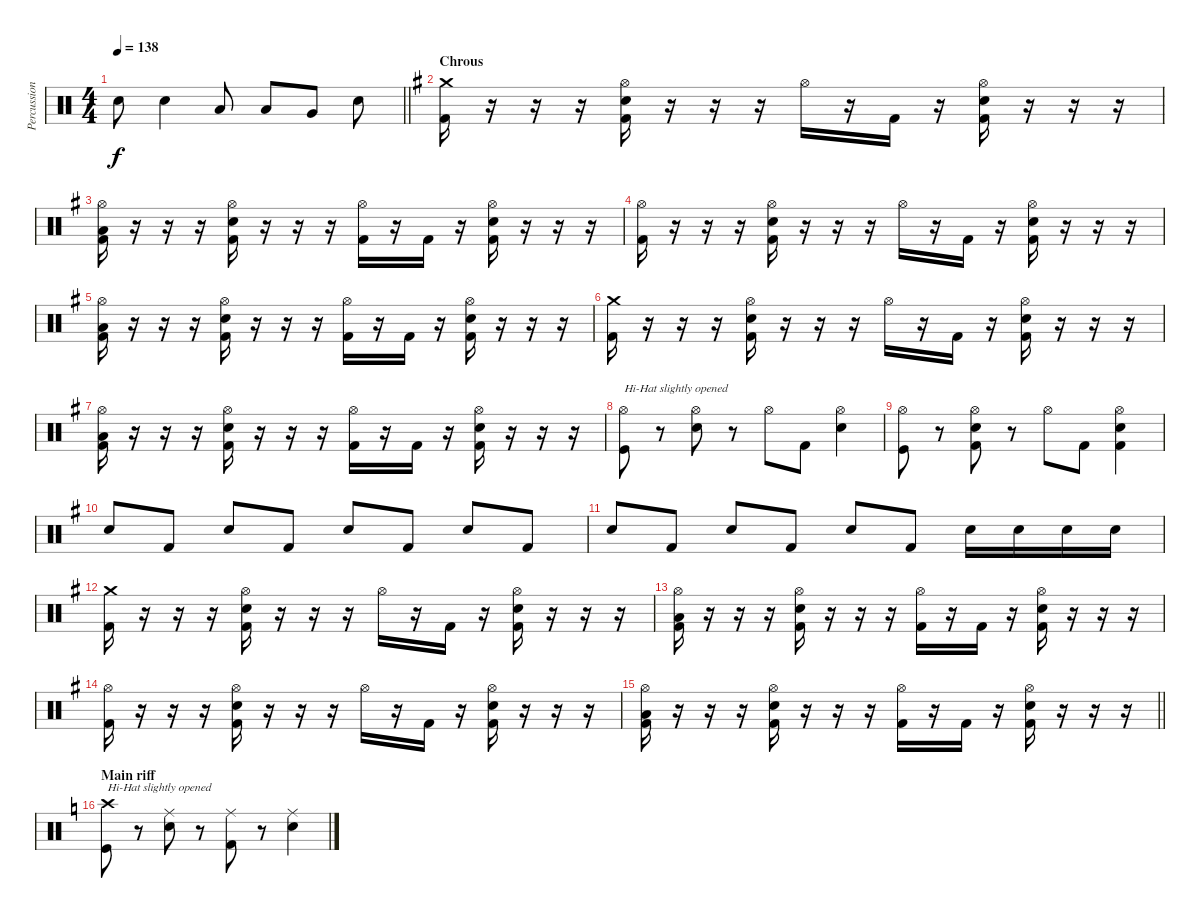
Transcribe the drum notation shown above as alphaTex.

\track ("Percussion" "Percussion") {instrument percussion}
\staff {score}
\articulation defaults
\ts (4 4)
\tempo 138
\clef neutral
\barLineRight lightlight
\ks c "Electric Snare (hit)".8{dy f} "Electric Snare (hit)".4 "Low Tom (hit)".8 "Low Floor Tom (hit)".8 "Very Low Tom (hit)".8 "Electric Snare (hit)".8
|
\section ("" "Chrous")
\ks g
("Crash medium (hit)" "Kick (hit) 2").16 r.16 r.16 r.16 ("Hi-Hat (open)" "Electric Snare (hit)" "Kick (hit) 2").16 r.16 r.16 r.16 "Hi-Hat (open)".16 r.16 "Kick (hit) 2".16 r.16 ("Hi-Hat (open)" "Electric Snare (hit)" "Kick (hit) 2").16 r.16 r.16 r.16 |
("Hi-Hat (open)" "Low Tom (hit)" "Kick (hit) 2").16 r.16 r.16 r.16 ("Hi-Hat (open)" "Electric Snare (hit)" "Kick (hit) 2").16 r.16 r.16 r.16 ("Hi-Hat (open)" "Kick (hit) 2").16 r.16 "Kick (hit) 2".16 r.16 ("Hi-Hat (open)" "Electric Snare (hit)" "Kick (hit) 2").16 r.16 r.16 r.16 |
("Hi-Hat (open)" "Kick (hit) 2").16 r.16 r.16 r.16 ("Hi-Hat (open)" "Electric Snare (hit)" "Kick (hit) 2").16 r.16 r.16 r.16 "Hi-Hat (open)".16 r.16 "Kick (hit) 2".16 r.16 ("Hi-Hat (open)" "Electric Snare (hit)" "Kick (hit) 2").16 r.16 r.16 r.16 |
("Hi-Hat (open)" "Low Tom (hit)" "Kick (hit) 2").16 r.16 r.16 r.16 ("Hi-Hat (open)" "Electric Snare (hit)" "Kick (hit) 2").16 r.16 r.16 r.16 ("Hi-Hat (open)" "Kick (hit) 2").16 r.16 "Kick (hit) 2".16 r.16 ("Hi-Hat (open)" "Electric Snare (hit)" "Kick (hit) 2").16 r.16 r.16 r.16 |
("Crash medium (hit)" "Kick (hit) 2").16 r.16 r.16 r.16 ("Hi-Hat (open)" "Electric Snare (hit)" "Kick (hit) 2").16 r.16 r.16 r.16 "Hi-Hat (open)".16 r.16 "Kick (hit) 2".16 r.16 ("Hi-Hat (open)" "Electric Snare (hit)" "Kick (hit) 2").16 r.16 r.16 r.16 |
("Hi-Hat (open)" "Low Tom (hit)" "Kick (hit) 2").16 r.16 r.16 r.16 ("Hi-Hat (open)" "Electric Snare (hit)" "Kick (hit) 2").16 r.16 r.16 r.16 ("Hi-Hat (open)" "Kick (hit) 2").16 r.16 "Kick (hit) 2".16 r.16 ("Hi-Hat (open)" "Electric Snare (hit)" "Kick (hit) 2").16 r.16 r.16 r.16 |
("Hi-Hat (open)" "Kick (hit)").8{txt "Hi-Hat slightly opened"} r.8 ("Hi-Hat (open)" "Electric Snare (hit)").8 r.8 "Hi-Hat (open)".8 "Kick (hit) 2".8 ("Hi-Hat (open)" "Electric Snare (hit)").4 |
("Hi-Hat (open)" "Kick (hit)").8 r.8 ("Hi-Hat (open)" "Electric Snare (hit)" "Kick (hit) 2").8 r.8 "Hi-Hat (open)".8 "Kick (hit) 2".8 ("Hi-Hat (open)" "Electric Snare (hit)" "Kick (hit) 2").4 |
"Electric Snare (hit)".8 "Kick (hit) 2".8 "Electric Snare (hit)".8 "Kick (hit) 2".8 "Electric Snare (hit)".8 "Kick (hit) 2".8 "Electric Snare (hit)".8 "Kick (hit) 2".8 |
"Electric Snare (hit)".8 "Kick (hit) 2".8 "Electric Snare (hit)".8 "Kick (hit) 2".8 "Electric Snare (hit)".8 "Kick (hit) 2".8 "Electric Snare (hit)".16 "Electric Snare (hit)".16 "Electric Snare (hit)".16 "Electric Snare (hit)".16 |
("Crash medium (hit)" "Kick (hit) 2").16 r.16 r.16 r.16 ("Hi-Hat (open)" "Electric Snare (hit)" "Kick (hit) 2").16 r.16 r.16 r.16 "Hi-Hat (open)".16 r.16 "Kick (hit) 2".16 r.16 ("Hi-Hat (open)" "Electric Snare (hit)" "Kick (hit) 2").16 r.16 r.16 r.16 |
("Hi-Hat (open)" "Low Tom (hit)" "Kick (hit) 2").16 r.16 r.16 r.16 ("Hi-Hat (open)" "Electric Snare (hit)" "Kick (hit) 2").16 r.16 r.16 r.16 ("Hi-Hat (open)" "Kick (hit) 2").16 r.16 "Kick (hit) 2".16 r.16 ("Hi-Hat (open)" "Electric Snare (hit)" "Kick (hit) 2").16 r.16 r.16 r.16 |
("Hi-Hat (open)" "Kick (hit) 2").16 r.16 r.16 r.16 ("Hi-Hat (open)" "Electric Snare (hit)" "Kick (hit) 2").16 r.16 r.16 r.16 "Hi-Hat (open)".16 r.16 "Kick (hit) 2".16 r.16 ("Hi-Hat (open)" "Electric Snare (hit)" "Kick (hit) 2").16 r.16 r.16 r.16 |
\barLineRight lightlight
("Hi-Hat (open)" "Low Tom (hit)" "Kick (hit) 2").16 r.16 r.16 r.16 ("Hi-Hat (open)" "Electric Snare (hit)" "Kick (hit) 2").16 r.16 r.16 r.16 ("Hi-Hat (open)" "Kick (hit) 2").16 r.16 "Kick (hit) 2".16 r.16 ("Hi-Hat (open)" "Electric Snare (hit)" "Kick (hit) 2").16 r.16 r.16 r.16 |
\section ("" "Main riff")
\ks c
("Crash high (hit)" "Kick (hit)").8{txt "Hi-Hat slightly opened"} r.8 ("Ride (middle)" "Electric Snare (hit)").8 r.8 ("Ride (middle)" "Kick (hit) 2").8 r.8 ("Ride (middle)" "Electric Snare (hit)").4
